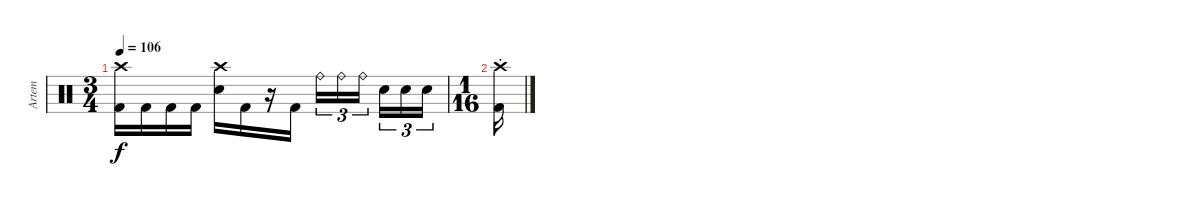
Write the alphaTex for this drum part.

\track ("Artem" "Artem") {instrument percussion}
\staff {score}
\articulation defaults
\ts (3 4)
\tempo 106
\clef neutral
\ks c
("Kick (hit) 2" "Crash high (hit)").16{dy f} "Kick (hit) 2".16 "Kick (hit) 2".16 "Kick (hit) 2".16 ("Snare (hit) 2" "Crash high (hit)").16 "Kick (hit) 2".16 r.16 "Kick (hit) 2".16 "Ride (bell)".16{tu (3 2)} "Ride (bell)".16{tu (3 2)} "Ride (bell)".16{tu (3 2) beam splitsecondary} "Snare (hit) 2".16{tu (3 2)} "Snare (hit) 2".16{tu (3 2)} "Snare (hit) 2".16{tu (3 2)} |
\ts (1 16)
("Kick (hit) 2"{st} "Crash high (hit)"{st}).16
